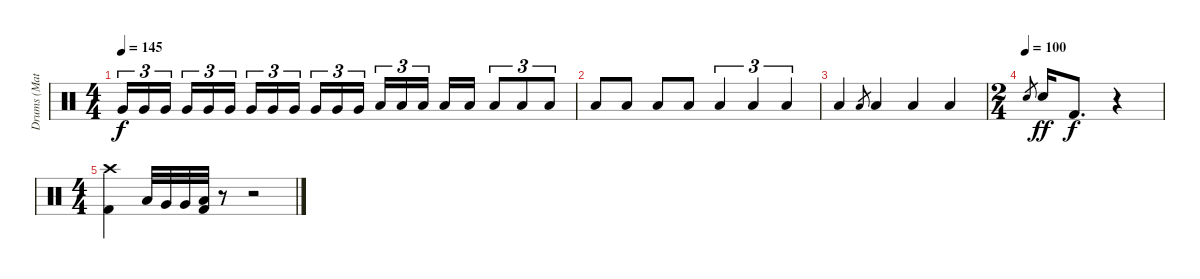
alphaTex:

\track ("Drums (Matt)" "Drums (Mat") {instrument percussion}
\staff {score}
\articulation defaults
\ts (4 4)
\tempo 145
\clef neutral
\ks c "Very Low Tom (hit)".16{tu (3 2) dy f} "Very Low Tom (hit)".16{tu (3 2)} "Very Low Tom (hit)".16{tu (3 2)} "Very Low Tom (hit)".16{tu (3 2)} "Very Low Tom (hit)".16{tu (3 2)} "Very Low Tom (hit)".16{tu (3 2)} "Very Low Tom (hit)".16{tu (3 2)} "Very Low Tom (hit)".16{tu (3 2)} "Very Low Tom (hit)".16{tu (3 2)} "Very Low Tom (hit)".16{tu (3 2)} "Very Low Tom (hit)".16{tu (3 2)} "Very Low Tom (hit)".16{tu (3 2)} "Low Floor Tom (hit)".16{tu (3 2)} "Low Floor Tom (hit)".16{tu (3 2)} "Low Floor Tom (hit)".16{tu (3 2)} "Low Floor Tom (hit)".16 "Low Floor Tom (hit)".16 "Low Floor Tom (hit)".8{tu (3 2)} "Low Floor Tom (hit)".8{tu (3 2)} "Low Floor Tom (hit)".8{tu (3 2)}
|
"Low Floor Tom (hit)".8 "Low Floor Tom (hit)".8 "Low Floor Tom (hit)".8 "Low Floor Tom (hit)".8 "Low Floor Tom (hit)".4{tu (3 2)} "Low Floor Tom (hit)".4{tu (3 2)} "Low Floor Tom (hit)".4{tu (3 2)} |
"Low Floor Tom (hit)".4 "Low Floor Tom (hit)".8{gr} "Low Floor Tom (hit)".4 "Low Floor Tom (hit)".4 "Low Floor Tom (hit)".4 |
\ts (2 4)
\tempo (100)
"Snare (hit) 2".8{gr} "Snare (hit) 2".16{dy ff} "Kick (hit) 2".8{d dy f} r.4 |
\ts (4 4)
("Crash high (hit)" "Kick (hit) 2").4 "Low Tom (hit)".32 "Very Low Tom (hit)".32 "Very Low Tom (hit)".32 ("Low Floor Tom (hit)" "Kick (hit) 2").32 r.8 r.2
